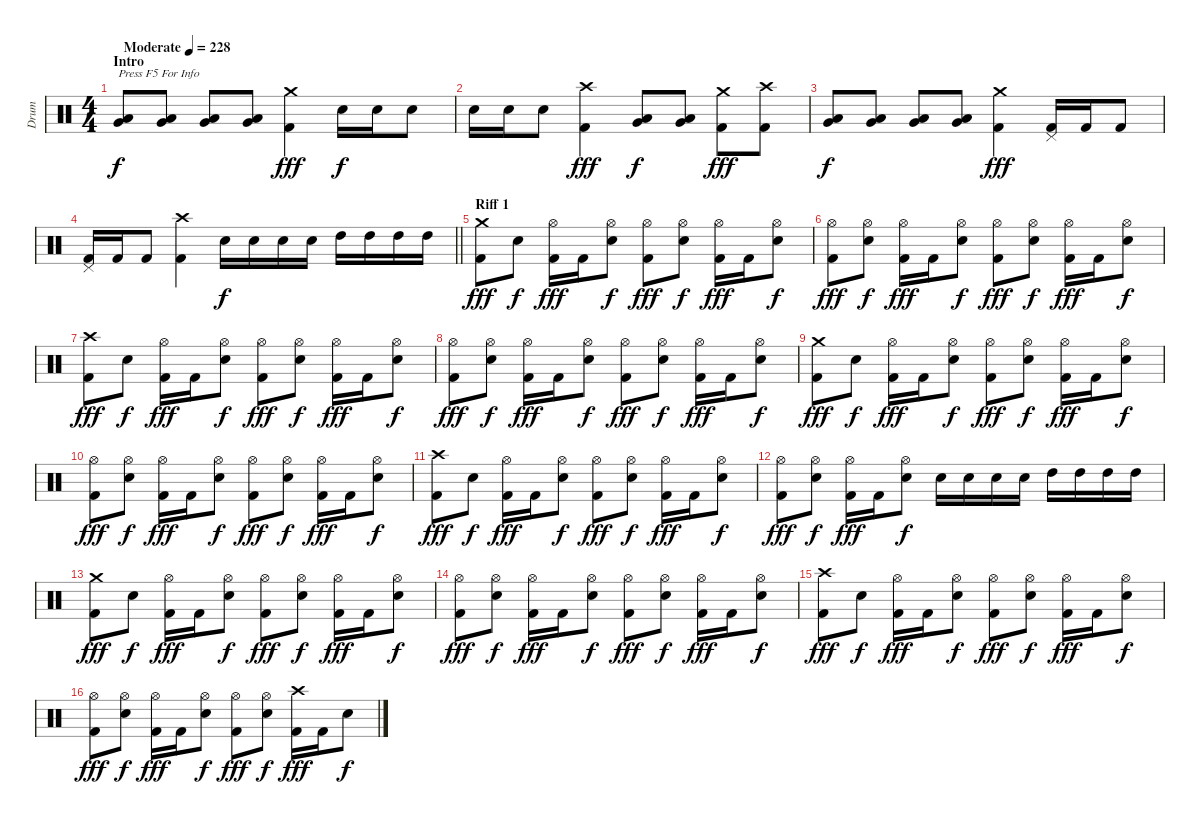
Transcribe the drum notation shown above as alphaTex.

\track ("Drum" "Drum") {instrument percussion}
\staff {score}
\articulation defaults
\ts (4 4)
\section ("" "Intro")
\tempo (228 "Moderate")
\clef neutral
\ks c
("Very Low Tom (hit)" "Low Floor Tom (hit)").8{txt "Press F5 For Info" dy f} ("Very Low Tom (hit)" "Low Floor Tom (hit)").8 ("Very Low Tom (hit)" "Low Floor Tom (hit)").8 ("Very Low Tom (hit)" "Low Floor Tom (hit)").8 ("Crash medium (hit)" "Kick (hit) 2").4{dy fff} "Snare (hit) 2".16{dy f} "Snare (hit) 2".16 "Snare (hit) 2".8 |
"Snare (hit) 2".16 "Snare (hit) 2".16 "Snare (hit) 2".8 ("Crash high (hit)" "Kick (hit) 2").4{dy fff} ("Very Low Tom (hit)" "Low Floor Tom (hit)").8{dy f} ("Very Low Tom (hit)" "Low Floor Tom (hit)").8 ("Crash medium (hit)" "Kick (hit) 2").8{dy fff} ("Crash high (hit)" "Kick (hit) 2").8 |
("Very Low Tom (hit)" "Low Floor Tom (hit)").8{dy f} ("Very Low Tom (hit)" "Low Floor Tom (hit)").8 ("Very Low Tom (hit)" "Low Floor Tom (hit)").8 ("Very Low Tom (hit)" "Low Floor Tom (hit)").8 ("Crash medium (hit)" "Kick (hit) 2").4{dy fff} ("Pedal Hi-Hat (hit)" "Kick (hit) 2").16 "Kick (hit) 2".16 "Kick (hit) 2".8 |
\barLineRight lightlight
("Pedal Hi-Hat (hit)" "Kick (hit) 2").16 "Kick (hit) 2".16 "Kick (hit) 2".8 ("Crash high (hit)" "Kick (hit) 2").4 "Snare (hit) 2".16{dy f} "Snare (hit) 2".16 "Snare (hit) 2".16 "Snare (hit) 2".16 "High Tom (hit)".16 "High Tom (hit)".16 "High Tom (hit)".16 "High Tom (hit)".16 |
\section ("" "Riff 1")
("Crash medium (hit)" "Kick (hit) 2").8{dy fff} "Snare (hit) 2".8{dy f} ("Hi-Hat (open)" "Kick (hit) 2").16{dy fff} "Kick (hit) 2".16 ("Hi-Hat (open)" "Snare (hit) 2").8{dy f} ("Hi-Hat (open)" "Kick (hit) 2").8{dy fff} ("Hi-Hat (open)" "Snare (hit) 2").8{dy f} ("Hi-Hat (open)" "Kick (hit) 2").16{dy fff} "Kick (hit) 2".16 ("Hi-Hat (open)" "Snare (hit) 2").8{dy f} |
("Hi-Hat (open)" "Kick (hit) 2").8{dy fff} ("Hi-Hat (open)" "Snare (hit) 2").8{dy f} ("Hi-Hat (open)" "Kick (hit) 2").16{dy fff} "Kick (hit) 2".16 ("Hi-Hat (open)" "Snare (hit) 2").8{dy f} ("Hi-Hat (open)" "Kick (hit) 2").8{dy fff} ("Hi-Hat (open)" "Snare (hit) 2").8{dy f} ("Hi-Hat (open)" "Kick (hit) 2").16{dy fff} "Kick (hit) 2".16 ("Hi-Hat (open)" "Snare (hit) 2").8{dy f} |
("Crash high (hit)" "Kick (hit) 2").8{dy fff} "Snare (hit) 2".8{dy f} ("Hi-Hat (open)" "Kick (hit) 2").16{dy fff} "Kick (hit) 2".16 ("Hi-Hat (open)" "Snare (hit) 2").8{dy f} ("Hi-Hat (open)" "Kick (hit) 2").8{dy fff} ("Hi-Hat (open)" "Snare (hit) 2").8{dy f} ("Hi-Hat (open)" "Kick (hit) 2").16{dy fff} "Kick (hit) 2".16 ("Hi-Hat (open)" "Snare (hit) 2").8{dy f} |
("Hi-Hat (open)" "Kick (hit) 2").8{dy fff} ("Hi-Hat (open)" "Snare (hit) 2").8{dy f} ("Hi-Hat (open)" "Kick (hit) 2").16{dy fff} "Kick (hit) 2".16 ("Hi-Hat (open)" "Snare (hit) 2").8{dy f} ("Hi-Hat (open)" "Kick (hit) 2").8{dy fff} ("Hi-Hat (open)" "Snare (hit) 2").8{dy f} ("Hi-Hat (open)" "Kick (hit) 2").16{dy fff} "Kick (hit) 2".16 ("Hi-Hat (open)" "Snare (hit) 2").8{dy f} |
("Crash medium (hit)" "Kick (hit) 2").8{dy fff} "Snare (hit) 2".8{dy f} ("Hi-Hat (open)" "Kick (hit) 2").16{dy fff} "Kick (hit) 2".16 ("Hi-Hat (open)" "Snare (hit) 2").8{dy f} ("Hi-Hat (open)" "Kick (hit) 2").8{dy fff} ("Hi-Hat (open)" "Snare (hit) 2").8{dy f} ("Hi-Hat (open)" "Kick (hit) 2").16{dy fff} "Kick (hit) 2".16 ("Hi-Hat (open)" "Snare (hit) 2").8{dy f} |
("Hi-Hat (open)" "Kick (hit) 2").8{dy fff} ("Hi-Hat (open)" "Snare (hit) 2").8{dy f} ("Hi-Hat (open)" "Kick (hit) 2").16{dy fff} "Kick (hit) 2".16 ("Hi-Hat (open)" "Snare (hit) 2").8{dy f} ("Hi-Hat (open)" "Kick (hit) 2").8{dy fff} ("Hi-Hat (open)" "Snare (hit) 2").8{dy f} ("Hi-Hat (open)" "Kick (hit) 2").16{dy fff} "Kick (hit) 2".16 ("Hi-Hat (open)" "Snare (hit) 2").8{dy f} |
("Crash high (hit)" "Kick (hit) 2").8{dy fff} "Snare (hit) 2".8{dy f} ("Hi-Hat (open)" "Kick (hit) 2").16{dy fff} "Kick (hit) 2".16 ("Hi-Hat (open)" "Snare (hit) 2").8{dy f} ("Hi-Hat (open)" "Kick (hit) 2").8{dy fff} ("Hi-Hat (open)" "Snare (hit) 2").8{dy f} ("Hi-Hat (open)" "Kick (hit) 2").16{dy fff} "Kick (hit) 2".16 ("Hi-Hat (open)" "Snare (hit) 2").8{dy f} |
("Hi-Hat (open)" "Kick (hit) 2").8{dy fff} ("Hi-Hat (open)" "Snare (hit) 2").8{dy f} ("Hi-Hat (open)" "Kick (hit) 2").16{dy fff} "Kick (hit) 2".16 ("Hi-Hat (open)" "Snare (hit) 2").8{dy f} "Snare (hit) 2".16 "Snare (hit) 2".16 "Snare (hit) 2".16 "Snare (hit) 2".16 "High Tom (hit)".16 "High Tom (hit)".16 "High Tom (hit)".16 "High Tom (hit)".16 |
("Crash medium (hit)" "Kick (hit) 2").8{dy fff} "Snare (hit) 2".8{dy f} ("Hi-Hat (open)" "Kick (hit) 2").16{dy fff} "Kick (hit) 2".16 ("Hi-Hat (open)" "Snare (hit) 2").8{dy f} ("Hi-Hat (open)" "Kick (hit) 2").8{dy fff} ("Hi-Hat (open)" "Snare (hit) 2").8{dy f} ("Hi-Hat (open)" "Kick (hit) 2").16{dy fff} "Kick (hit) 2".16 ("Hi-Hat (open)" "Snare (hit) 2").8{dy f} |
("Hi-Hat (open)" "Kick (hit) 2").8{dy fff} ("Hi-Hat (open)" "Snare (hit) 2").8{dy f} ("Hi-Hat (open)" "Kick (hit) 2").16{dy fff} "Kick (hit) 2".16 ("Hi-Hat (open)" "Snare (hit) 2").8{dy f} ("Hi-Hat (open)" "Kick (hit) 2").8{dy fff} ("Hi-Hat (open)" "Snare (hit) 2").8{dy f} ("Hi-Hat (open)" "Kick (hit) 2").16{dy fff} "Kick (hit) 2".16 ("Hi-Hat (open)" "Snare (hit) 2").8{dy f} |
("Crash high (hit)" "Kick (hit) 2").8{dy fff} "Snare (hit) 2".8{dy f} ("Hi-Hat (open)" "Kick (hit) 2").16{dy fff} "Kick (hit) 2".16 ("Hi-Hat (open)" "Snare (hit) 2").8{dy f} ("Hi-Hat (open)" "Kick (hit) 2").8{dy fff} ("Hi-Hat (open)" "Snare (hit) 2").8{dy f} ("Hi-Hat (open)" "Kick (hit) 2").16{dy fff} "Kick (hit) 2".16 ("Hi-Hat (open)" "Snare (hit) 2").8{dy f} |
("Hi-Hat (open)" "Kick (hit) 2").8{dy fff} ("Hi-Hat (open)" "Snare (hit) 2").8{dy f} ("Hi-Hat (open)" "Kick (hit) 2").16{dy fff} "Kick (hit) 2".16 ("Hi-Hat (open)" "Snare (hit) 2").8{dy f} ("Hi-Hat (open)" "Kick (hit) 2").8{dy fff} ("Hi-Hat (open)" "Snare (hit) 2").8{dy f} ("Crash high (hit)" "Kick (hit) 2").16{dy fff} "Kick (hit) 2".16 "Snare (hit) 2".8{dy f}
